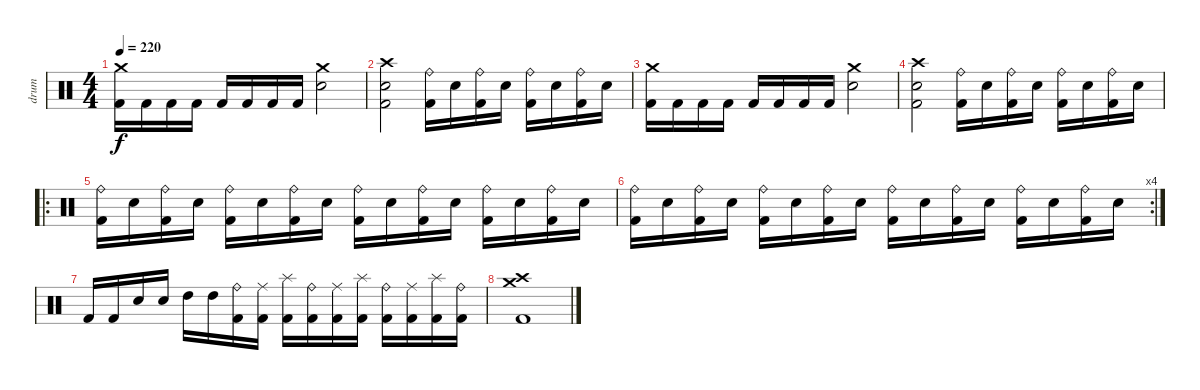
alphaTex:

\track ("drum" "drum") {instrument percussion}
\staff {score}
\articulation defaults
\ts (4 4)
\tempo 220
\clef neutral
\ks c
("Crash medium (hit)" "Kick (hit) 2").16{dy f} "Kick (hit) 2".16 "Kick (hit) 2".16 "Kick (hit) 2".16 "Kick (hit) 2".16 "Kick (hit) 2".16 "Kick (hit) 2".16 "Kick (hit) 2".16 ("Crash medium (hit)" "Electric Snare (hit)").2 |
("Crash high (hit)" "Electric Snare (hit)" "Kick (hit) 2").2 ("Ride (bell)" "Kick (hit) 2").16 "Electric Snare (hit)".16 ("Ride (bell)" "Kick (hit) 2").16 "Electric Snare (hit)".16 ("Ride (bell)" "Kick (hit) 2").16 "Electric Snare (hit)".16 ("Ride (bell)" "Kick (hit) 2").16 "Electric Snare (hit)".16 |
("Crash medium (hit)" "Kick (hit) 2").16 "Kick (hit) 2".16 "Kick (hit) 2".16 "Kick (hit) 2".16 "Kick (hit) 2".16 "Kick (hit) 2".16 "Kick (hit) 2".16 "Kick (hit) 2".16 ("Crash medium (hit)" "Electric Snare (hit)").2 |
("Crash high (hit)" "Electric Snare (hit)" "Kick (hit) 2").2 ("Ride (bell)" "Kick (hit) 2").16 "Electric Snare (hit)".16 ("Ride (bell)" "Kick (hit) 2").16 "Electric Snare (hit)".16 ("Ride (bell)" "Kick (hit) 2").16 "Electric Snare (hit)".16 ("Ride (bell)" "Kick (hit) 2").16 "Electric Snare (hit)".16 |
\ro
("Ride (bell)" "Kick (hit) 2").16 "Electric Snare (hit)".16 ("Ride (bell)" "Kick (hit) 2").16 "Electric Snare (hit)".16 ("Ride (bell)" "Kick (hit) 2").16 "Electric Snare (hit)".16 ("Ride (bell)" "Kick (hit) 2").16 "Electric Snare (hit)".16 ("Ride (bell)" "Kick (hit) 2").16 "Electric Snare (hit)".16 ("Ride (bell)" "Kick (hit) 2").16 "Electric Snare (hit)".16 ("Ride (bell)" "Kick (hit) 2").16 "Electric Snare (hit)".16 ("Ride (bell)" "Kick (hit) 2").16 "Electric Snare (hit)".16 |
\rc 4
("Ride (bell)" "Kick (hit) 2").16 "Electric Snare (hit)".16 ("Ride (bell)" "Kick (hit) 2").16 "Electric Snare (hit)".16 ("Ride (bell)" "Kick (hit) 2").16 "Electric Snare (hit)".16 ("Ride (bell)" "Kick (hit) 2").16 "Electric Snare (hit)".16 ("Ride (bell)" "Kick (hit) 2").16 "Electric Snare (hit)".16 ("Ride (bell)" "Kick (hit) 2").16 "Electric Snare (hit)".16 ("Ride (bell)" "Kick (hit) 2").16 "Electric Snare (hit)".16 ("Ride (bell)" "Kick (hit) 2").16 "Electric Snare (hit)".16 |
"Kick (hit) 2".16 "Kick (hit) 2".16 "Electric Snare (hit)".16 "Electric Snare (hit)".16 "High Tom (hit)".16 "High Tom (hit)".16 ("Ride (bell)" "Kick (hit) 2").16 ("Ride (middle)" "Kick (hit) 2").16 ("Splash (hit)" "Kick (hit) 2").16 ("Ride (bell)" "Kick (hit) 2").16 ("Ride (middle)" "Kick (hit) 2").16 ("Splash (hit)" "Kick (hit) 2").16 ("Ride (bell)" "Kick (hit) 2").16 ("Ride (middle)" "Kick (hit) 2").16 ("Splash (hit)" "Kick (hit) 2").16 ("Ride (bell)" "Kick (hit) 2").16 |
("Crash high (hit)" "Crash medium (hit)" "Kick (hit) 2").1
